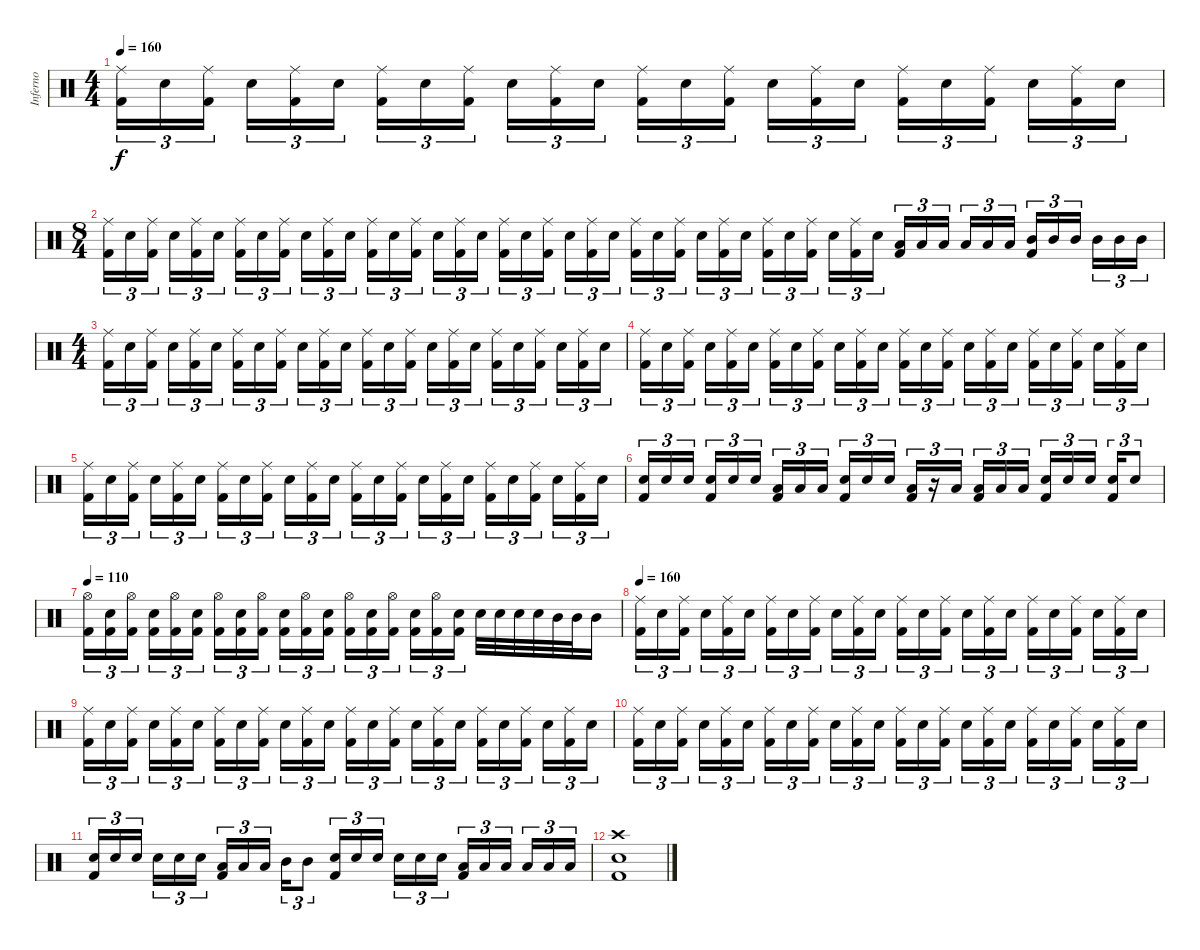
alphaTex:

\track ("Inferno" "Inferno") {instrument percussion}
\staff {score}
\articulation defaults
\ts (4 4)
\tempo 160
\clef neutral
\ks c
("Ride (middle)" "Kick (hit) 2").16{tu (3 2) dy f} "Electric Snare (hit)".16{tu (3 2)} ("Ride (middle)" "Kick (hit) 2").16{tu (3 2)} "Electric Snare (hit)".16{tu (3 2)} ("Ride (middle)" "Kick (hit) 2").16{tu (3 2)} "Electric Snare (hit)".16{tu (3 2)} ("Ride (middle)" "Kick (hit) 2").16{tu (3 2)} "Electric Snare (hit)".16{tu (3 2)} ("Ride (middle)" "Kick (hit) 2").16{tu (3 2)} "Electric Snare (hit)".16{tu (3 2)} ("Ride (middle)" "Kick (hit) 2").16{tu (3 2)} "Electric Snare (hit)".16{tu (3 2)} ("Ride (middle)" "Kick (hit) 2").16{tu (3 2)} "Electric Snare (hit)".16{tu (3 2)} ("Ride (middle)" "Kick (hit) 2").16{tu (3 2)} "Electric Snare (hit)".16{tu (3 2)} ("Ride (middle)" "Kick (hit) 2").16{tu (3 2)} "Electric Snare (hit)".16{tu (3 2)} ("Ride (middle)" "Kick (hit) 2").16{tu (3 2)} "Electric Snare (hit)".16{tu (3 2)} ("Ride (middle)" "Kick (hit) 2").16{tu (3 2)} "Electric Snare (hit)".16{tu (3 2)} ("Ride (middle)" "Kick (hit) 2").16{tu (3 2)} "Electric Snare (hit)".16{tu (3 2)} |
\ts (8 4)
("Ride (middle)" "Kick (hit) 2").16{tu (3 2)} "Electric Snare (hit)".16{tu (3 2)} ("Ride (middle)" "Kick (hit) 2").16{tu (3 2)} "Electric Snare (hit)".16{tu (3 2)} ("Ride (middle)" "Kick (hit) 2").16{tu (3 2)} "Electric Snare (hit)".16{tu (3 2)} ("Ride (middle)" "Kick (hit) 2").16{tu (3 2)} "Electric Snare (hit)".16{tu (3 2)} ("Ride (middle)" "Kick (hit) 2").16{tu (3 2)} "Electric Snare (hit)".16{tu (3 2)} ("Ride (middle)" "Kick (hit) 2").16{tu (3 2)} "Electric Snare (hit)".16{tu (3 2)} ("Ride (middle)" "Kick (hit) 2").16{tu (3 2)} "Electric Snare (hit)".16{tu (3 2)} ("Ride (middle)" "Kick (hit) 2").16{tu (3 2)} "Electric Snare (hit)".16{tu (3 2)} ("Ride (middle)" "Kick (hit) 2").16{tu (3 2)} "Electric Snare (hit)".16{tu (3 2)} ("Ride (middle)" "Kick (hit) 2").16{tu (3 2)} "Electric Snare (hit)".16{tu (3 2)} ("Ride (middle)" "Kick (hit) 2").16{tu (3 2)} "Electric Snare (hit)".16{tu (3 2)} ("Ride (middle)" "Kick (hit) 2").16{tu (3 2)} "Electric Snare (hit)".16{tu (3 2)} ("Ride (middle)" "Kick (hit) 2").16{tu (3 2)} "Electric Snare (hit)".16{tu (3 2)} ("Ride (middle)" "Kick (hit) 2").16{tu (3 2)} "Electric Snare (hit)".16{tu (3 2)} ("Ride (middle)" "Kick (hit) 2").16{tu (3 2)} "Electric Snare (hit)".16{tu (3 2)} ("Ride (middle)" "Kick (hit) 2").16{tu (3 2)} "Electric Snare (hit)".16{tu (3 2)} ("Ride (middle)" "Kick (hit) 2").16{tu (3 2)} "Electric Snare (hit)".16{tu (3 2)} ("Ride (middle)" "Kick (hit) 2").16{tu (3 2)} "Electric Snare (hit)".16{tu (3 2)} ("Low Tom (hit)" "Kick (hit) 2").16{tu (3 2)} "Low Tom (hit)".16{tu (3 2)} "Low Tom (hit)".16{tu (3 2)} "Low Tom (hit)".16{tu (3 2)} "Low Tom (hit)".16{tu (3 2)} "Low Tom (hit)".16{tu (3 2)} ("Mid Tom (hit)" "Kick (hit) 2").16{tu (3 2)} "Mid Tom (hit)".16{tu (3 2)} "Mid Tom (hit)".16{tu (3 2)} "Mid Tom (hit)".16{tu (3 2)} "Mid Tom (hit)".16{tu (3 2)} "Mid Tom (hit)".16{tu (3 2)} |
\ts (4 4)
("Ride (middle)" "Kick (hit) 2").16{tu (3 2)} "Electric Snare (hit)".16{tu (3 2)} ("Ride (middle)" "Kick (hit) 2").16{tu (3 2)} "Electric Snare (hit)".16{tu (3 2)} ("Ride (middle)" "Kick (hit) 2").16{tu (3 2)} "Electric Snare (hit)".16{tu (3 2)} ("Ride (middle)" "Kick (hit) 2").16{tu (3 2)} "Electric Snare (hit)".16{tu (3 2)} ("Ride (middle)" "Kick (hit) 2").16{tu (3 2)} "Electric Snare (hit)".16{tu (3 2)} ("Ride (middle)" "Kick (hit) 2").16{tu (3 2)} "Electric Snare (hit)".16{tu (3 2)} ("Ride (middle)" "Kick (hit) 2").16{tu (3 2)} "Electric Snare (hit)".16{tu (3 2)} ("Ride (middle)" "Kick (hit) 2").16{tu (3 2)} "Electric Snare (hit)".16{tu (3 2)} ("Ride (middle)" "Kick (hit) 2").16{tu (3 2)} "Electric Snare (hit)".16{tu (3 2)} ("Ride (middle)" "Kick (hit) 2").16{tu (3 2)} "Electric Snare (hit)".16{tu (3 2)} ("Ride (middle)" "Kick (hit) 2").16{tu (3 2)} "Electric Snare (hit)".16{tu (3 2)} ("Ride (middle)" "Kick (hit) 2").16{tu (3 2)} "Electric Snare (hit)".16{tu (3 2)} |
("Ride (middle)" "Kick (hit) 2").16{tu (3 2)} "Electric Snare (hit)".16{tu (3 2)} ("Ride (middle)" "Kick (hit) 2").16{tu (3 2)} "Electric Snare (hit)".16{tu (3 2)} ("Ride (middle)" "Kick (hit) 2").16{tu (3 2)} "Electric Snare (hit)".16{tu (3 2)} ("Ride (middle)" "Kick (hit) 2").16{tu (3 2)} "Electric Snare (hit)".16{tu (3 2)} ("Ride (middle)" "Kick (hit) 2").16{tu (3 2)} "Electric Snare (hit)".16{tu (3 2)} ("Ride (middle)" "Kick (hit) 2").16{tu (3 2)} "Electric Snare (hit)".16{tu (3 2)} ("Ride (middle)" "Kick (hit) 2").16{tu (3 2)} "Electric Snare (hit)".16{tu (3 2)} ("Ride (middle)" "Kick (hit) 2").16{tu (3 2)} "Electric Snare (hit)".16{tu (3 2)} ("Ride (middle)" "Kick (hit) 2").16{tu (3 2)} "Electric Snare (hit)".16{tu (3 2)} ("Ride (middle)" "Kick (hit) 2").16{tu (3 2)} "Electric Snare (hit)".16{tu (3 2)} ("Ride (middle)" "Kick (hit) 2").16{tu (3 2)} "Electric Snare (hit)".16{tu (3 2)} ("Ride (middle)" "Kick (hit) 2").16{tu (3 2)} "Electric Snare (hit)".16{tu (3 2)} |
("Ride (middle)" "Kick (hit) 2").16{tu (3 2)} "Electric Snare (hit)".16{tu (3 2)} ("Ride (middle)" "Kick (hit) 2").16{tu (3 2)} "Electric Snare (hit)".16{tu (3 2)} ("Ride (middle)" "Kick (hit) 2").16{tu (3 2)} "Electric Snare (hit)".16{tu (3 2)} ("Ride (middle)" "Kick (hit) 2").16{tu (3 2)} "Electric Snare (hit)".16{tu (3 2)} ("Ride (middle)" "Kick (hit) 2").16{tu (3 2)} "Electric Snare (hit)".16{tu (3 2)} ("Ride (middle)" "Kick (hit) 2").16{tu (3 2)} "Electric Snare (hit)".16{tu (3 2)} ("Ride (middle)" "Kick (hit) 2").16{tu (3 2)} "Electric Snare (hit)".16{tu (3 2)} ("Ride (middle)" "Kick (hit) 2").16{tu (3 2)} "Electric Snare (hit)".16{tu (3 2)} ("Ride (middle)" "Kick (hit) 2").16{tu (3 2)} "Electric Snare (hit)".16{tu (3 2)} ("Ride (middle)" "Kick (hit) 2").16{tu (3 2)} "Electric Snare (hit)".16{tu (3 2)} ("Ride (middle)" "Kick (hit) 2").16{tu (3 2)} "Electric Snare (hit)".16{tu (3 2)} ("Ride (middle)" "Kick (hit) 2").16{tu (3 2)} "Electric Snare (hit)".16{tu (3 2)} |
("Electric Snare (hit)" "Kick (hit) 2").16{tu (3 2)} "Electric Snare (hit)".16{tu (3 2)} "Electric Snare (hit)".16{tu (3 2)} ("Electric Snare (hit)" "Kick (hit) 2").16{tu (3 2)} "Electric Snare (hit)".16{tu (3 2)} "Electric Snare (hit)".16{tu (3 2)} ("Low Tom (hit)" "Kick (hit) 2").16{tu (3 2)} "Low Tom (hit)".16{tu (3 2)} "Low Tom (hit)".16{tu (3 2)} ("Electric Snare (hit)" "Kick (hit) 2").16{tu (3 2)} "Electric Snare (hit)".16{tu (3 2)} "Electric Snare (hit)".16{tu (3 2)} ("Low Tom (hit)" "Kick (hit) 2").16{tu (3 2)} r.16{tu (3 2)} "Low Tom (hit)".16{tu (3 2)} ("Low Tom (hit)" "Kick (hit) 2").16{tu (3 2)} "Low Tom (hit)".16{tu (3 2)} "Low Tom (hit)".16{tu (3 2)} ("Electric Snare (hit)" "Kick (hit) 2").16{tu (3 2)} "Electric Snare (hit)".16{tu (3 2)} "Electric Snare (hit)".16{tu (3 2)} ("Electric Snare (hit)" "Kick (hit) 2").16{tu (3 2)} "Electric Snare (hit)".8{tu (3 2)} |
\tempo 110
("Hi-Hat (open)" "Kick (hit) 2").16{tu (3 2)} ("Electric Snare (hit)" "Kick (hit) 2").16{tu (3 2)} ("Hi-Hat (open)" "Kick (hit) 2").16{tu (3 2)} ("Electric Snare (hit)" "Kick (hit) 2").16{tu (3 2)} ("Hi-Hat (open)" "Kick (hit) 2").16{tu (3 2)} ("Electric Snare (hit)" "Kick (hit) 2").16{tu (3 2)} ("Hi-Hat (open)" "Kick (hit) 2").16{tu (3 2)} ("Electric Snare (hit)" "Kick (hit) 2").16{tu (3 2)} ("Hi-Hat (open)" "Kick (hit) 2").16{tu (3 2)} ("Electric Snare (hit)" "Kick (hit) 2").16{tu (3 2)} ("Hi-Hat (open)" "Kick (hit) 2").16{tu (3 2)} ("Electric Snare (hit)" "Kick (hit) 2").16{tu (3 2)} ("Hi-Hat (open)" "Kick (hit) 2").16{tu (3 2)} ("Electric Snare (hit)" "Kick (hit) 2").16{tu (3 2)} ("Hi-Hat (open)" "Kick (hit) 2").16{tu (3 2)} ("Electric Snare (hit)" "Kick (hit) 2").16{tu (3 2)} ("Hi-Hat (open)" "Kick (hit) 2").16{tu (3 2)} ("Electric Snare (hit)" "Kick (hit) 2").16{tu (3 2)} "Electric Snare (hit)".32 "Electric Snare (hit)".32 "Electric Snare (hit)".32 "Electric Snare (hit)".32 "Mid Tom (hit)".32 "Mid Tom (hit)".32 "Mid Tom (hit)".16 |
\tempo 160
("Ride (middle)" "Kick (hit) 2").16{tu (3 2)} "Electric Snare (hit)".16{tu (3 2)} ("Ride (middle)" "Kick (hit) 2").16{tu (3 2)} "Electric Snare (hit)".16{tu (3 2)} ("Ride (middle)" "Kick (hit) 2").16{tu (3 2)} "Electric Snare (hit)".16{tu (3 2)} ("Ride (middle)" "Kick (hit) 2").16{tu (3 2)} "Electric Snare (hit)".16{tu (3 2)} ("Ride (middle)" "Kick (hit) 2").16{tu (3 2)} "Electric Snare (hit)".16{tu (3 2)} ("Ride (middle)" "Kick (hit) 2").16{tu (3 2)} "Electric Snare (hit)".16{tu (3 2)} ("Ride (middle)" "Kick (hit) 2").16{tu (3 2)} "Electric Snare (hit)".16{tu (3 2)} ("Ride (middle)" "Kick (hit) 2").16{tu (3 2)} "Electric Snare (hit)".16{tu (3 2)} ("Ride (middle)" "Kick (hit) 2").16{tu (3 2)} "Electric Snare (hit)".16{tu (3 2)} ("Ride (middle)" "Kick (hit) 2").16{tu (3 2)} "Electric Snare (hit)".16{tu (3 2)} ("Ride (middle)" "Kick (hit) 2").16{tu (3 2)} "Electric Snare (hit)".16{tu (3 2)} ("Ride (middle)" "Kick (hit) 2").16{tu (3 2)} "Electric Snare (hit)".16{tu (3 2)} |
("Ride (middle)" "Kick (hit) 2").16{tu (3 2)} "Electric Snare (hit)".16{tu (3 2)} ("Ride (middle)" "Kick (hit) 2").16{tu (3 2)} "Electric Snare (hit)".16{tu (3 2)} ("Ride (middle)" "Kick (hit) 2").16{tu (3 2)} "Electric Snare (hit)".16{tu (3 2)} ("Ride (middle)" "Kick (hit) 2").16{tu (3 2)} "Electric Snare (hit)".16{tu (3 2)} ("Ride (middle)" "Kick (hit) 2").16{tu (3 2)} "Electric Snare (hit)".16{tu (3 2)} ("Ride (middle)" "Kick (hit) 2").16{tu (3 2)} "Electric Snare (hit)".16{tu (3 2)} ("Ride (middle)" "Kick (hit) 2").16{tu (3 2)} "Electric Snare (hit)".16{tu (3 2)} ("Ride (middle)" "Kick (hit) 2").16{tu (3 2)} "Electric Snare (hit)".16{tu (3 2)} ("Ride (middle)" "Kick (hit) 2").16{tu (3 2)} "Electric Snare (hit)".16{tu (3 2)} ("Ride (middle)" "Kick (hit) 2").16{tu (3 2)} "Electric Snare (hit)".16{tu (3 2)} ("Ride (middle)" "Kick (hit) 2").16{tu (3 2)} "Electric Snare (hit)".16{tu (3 2)} ("Ride (middle)" "Kick (hit) 2").16{tu (3 2)} "Electric Snare (hit)".16{tu (3 2)} |
("Ride (middle)" "Kick (hit) 2").16{tu (3 2)} "Electric Snare (hit)".16{tu (3 2)} ("Ride (middle)" "Kick (hit) 2").16{tu (3 2)} "Electric Snare (hit)".16{tu (3 2)} ("Ride (middle)" "Kick (hit) 2").16{tu (3 2)} "Electric Snare (hit)".16{tu (3 2)} ("Ride (middle)" "Kick (hit) 2").16{tu (3 2)} "Electric Snare (hit)".16{tu (3 2)} ("Ride (middle)" "Kick (hit) 2").16{tu (3 2)} "Electric Snare (hit)".16{tu (3 2)} ("Ride (middle)" "Kick (hit) 2").16{tu (3 2)} "Electric Snare (hit)".16{tu (3 2)} ("Ride (middle)" "Kick (hit) 2").16{tu (3 2)} "Electric Snare (hit)".16{tu (3 2)} ("Ride (middle)" "Kick (hit) 2").16{tu (3 2)} "Electric Snare (hit)".16{tu (3 2)} ("Ride (middle)" "Kick (hit) 2").16{tu (3 2)} "Electric Snare (hit)".16{tu (3 2)} ("Ride (middle)" "Kick (hit) 2").16{tu (3 2)} "Electric Snare (hit)".16{tu (3 2)} ("Ride (middle)" "Kick (hit) 2").16{tu (3 2)} "Electric Snare (hit)".16{tu (3 2)} ("Ride (middle)" "Kick (hit) 2").16{tu (3 2)} "Electric Snare (hit)".16{tu (3 2)} |
("Electric Snare (hit)" "Kick (hit) 2").16{tu (3 2)} "Electric Snare (hit)".16{tu (3 2)} "Electric Snare (hit)".16{tu (3 2)} "Electric Snare (hit)".16{tu (3 2)} "Electric Snare (hit)".16{tu (3 2)} "Electric Snare (hit)".16{tu (3 2)} ("Low Tom (hit)" "Kick (hit) 2").16{tu (3 2)} "Low Tom (hit)".16{tu (3 2)} "Low Tom (hit)".16{tu (3 2)} "Mid Tom (hit)".16{tu (3 2)} "Mid Tom (hit)".8{tu (3 2)} ("Electric Snare (hit)" "Kick (hit) 2").16{tu (3 2)} "Electric Snare (hit)".16{tu (3 2)} "Electric Snare (hit)".16{tu (3 2)} "Electric Snare (hit)".16{tu (3 2)} "Electric Snare (hit)".16{tu (3 2)} "Electric Snare (hit)".16{tu (3 2)} ("Low Tom (hit)" "Kick (hit) 2").16{tu (3 2)} "Low Tom (hit)".16{tu (3 2)} "Low Tom (hit)".16{tu (3 2)} "Low Tom (hit)".16{tu (3 2)} "Low Tom (hit)".16{tu (3 2)} "Low Tom (hit)".16{tu (3 2)} |
("Crash high (hit)" "Electric Snare (hit)" "Kick (hit) 2").1
